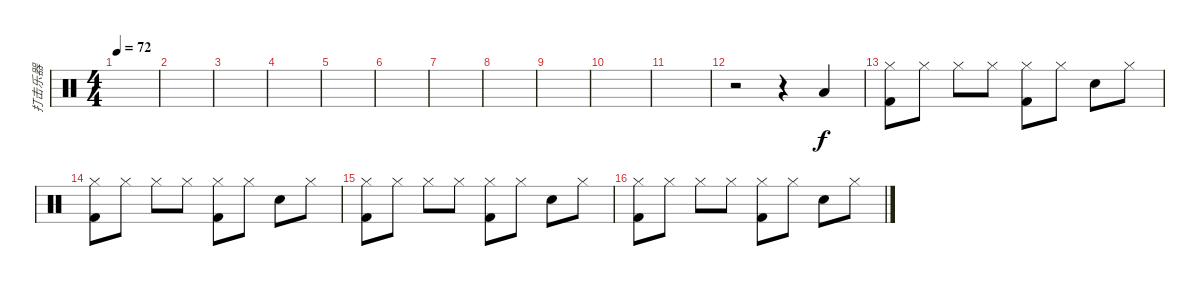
\track ("打击乐器" "打击乐器") {instrument percussion}
\staff {score}
\articulation defaults
\ts (4 4)
\tempo 72
\clef neutral
\ks c
|
|
|
|
|
|
|
|
|
|
|
r.2 r.4 "Low Tom (hit)".4 |
("Hi-Hat (closed)" "Kick (hit) 2").8 "Hi-Hat (closed)".8 "Hi-Hat (closed)".8 "Hi-Hat (closed)".8 ("Hi-Hat (closed)" "Kick (hit) 2").8 "Hi-Hat (closed)".8 "Electric Snare (hit)".8 "Hi-Hat (closed)".8 |
("Hi-Hat (closed)" "Kick (hit) 2").8 "Hi-Hat (closed)".8 "Hi-Hat (closed)".8 "Hi-Hat (closed)".8 ("Hi-Hat (closed)" "Kick (hit) 2").8 "Hi-Hat (closed)".8 "Electric Snare (hit)".8 "Hi-Hat (closed)".8 |
("Hi-Hat (closed)" "Kick (hit) 2").8 "Hi-Hat (closed)".8 "Hi-Hat (closed)".8 "Hi-Hat (closed)".8 ("Hi-Hat (closed)" "Kick (hit) 2").8 "Hi-Hat (closed)".8 "Electric Snare (hit)".8 "Hi-Hat (closed)".8 |
("Hi-Hat (closed)" "Kick (hit) 2").8 "Hi-Hat (closed)".8 "Hi-Hat (closed)".8 "Hi-Hat (closed)".8 ("Hi-Hat (closed)" "Kick (hit) 2").8 "Hi-Hat (closed)".8 "Electric Snare (hit)".8 "Hi-Hat (closed)".8
